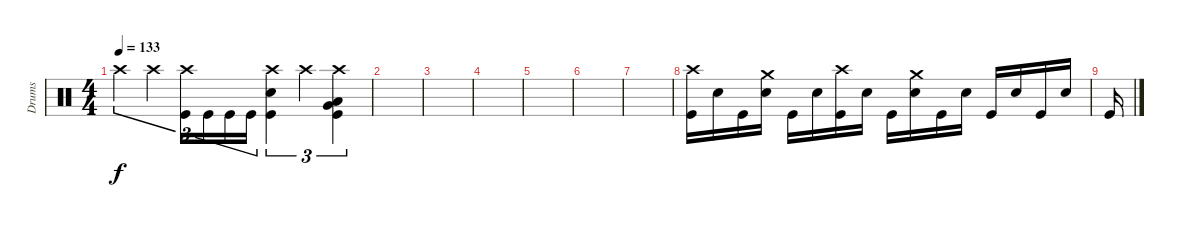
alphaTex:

\track ("Drums" "Drums") {instrument percussion}
\staff
\articulation defaults
\ts (4 4)
\tempo 133
\clef neutral
\ks c "Crash high (hit)".4{tu (3 2) dy f} "Crash high (hit)".4{tu (3 2)}
("Crash high (hit)" "Kick (hit)").16{tu (3 2)} "Kick (hit)".16{tu (3 2)} "Kick (hit)".16{tu (3 2)} "Kick (hit)".16{tu (3 2)} ("Crash high (hit)" "Electric Snare (hit)" "Kick (hit)").4{tu (3 2)} "Crash high (hit)".4{tu (3 2)} ("Crash high (hit)" "Very Low Tom (hit)" "Low Floor Tom (hit)" "Kick (hit)").4{tu (3 2)} |
|
|
|
|
|
|
("Crash high (hit)" "Kick (hit)").16 "Electric Snare (hit)".16 "Kick (hit)".16 ("Crash medium (hit)" "Electric Snare (hit)").16 "Kick (hit)".16 "Electric Snare (hit)".16 ("Crash high (hit)" "Kick (hit)").16 "Electric Snare (hit)".16 "Kick (hit)".16 ("Crash medium (hit)" "Electric Snare (hit)").16 "Kick (hit)".16 "Electric Snare (hit)".16 "Kick (hit)".16 "Electric Snare (hit)".16 "Kick (hit)".16 "Electric Snare (hit)".16 |
"Kick (hit)".16
